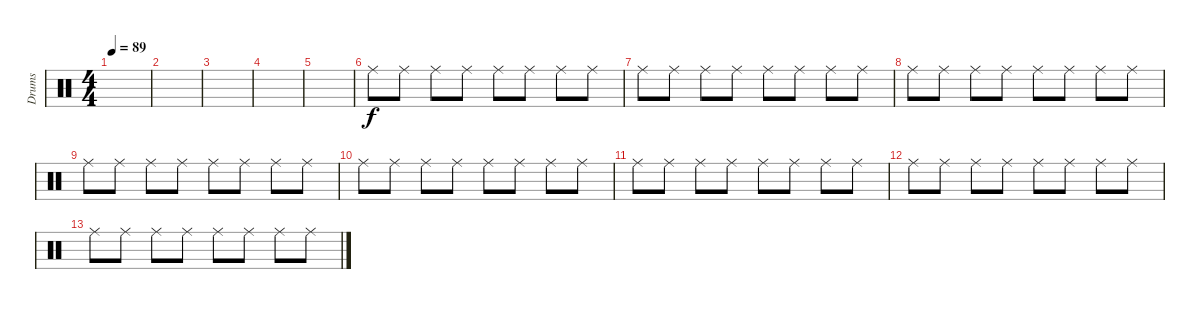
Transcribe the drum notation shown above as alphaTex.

\track ("Drums" "Drums") {instrument percussion}
\staff {score}
\articulation defaults
\ts (4 4)
\tempo 89
\clef neutral
\ks c
|
|
|
|
|
"Ride (middle)".8 "Ride (middle)".8 "Ride (middle)".8 "Ride (middle)".8 "Ride (middle)".8 "Ride (middle)".8 "Ride (middle)".8 "Ride (middle)".8 |
"Ride (middle)".8 "Ride (middle)".8 "Ride (middle)".8 "Ride (middle)".8 "Ride (middle)".8 "Ride (middle)".8 "Ride (middle)".8 "Ride (middle)".8 |
"Ride (middle)".8 "Ride (middle)".8 "Ride (middle)".8 "Ride (middle)".8 "Ride (middle)".8 "Ride (middle)".8 "Ride (middle)".8 "Ride (middle)".8 |
"Ride (middle)".8 "Ride (middle)".8 "Ride (middle)".8 "Ride (middle)".8 "Ride (middle)".8 "Ride (middle)".8 "Ride (middle)".8 "Ride (middle)".8 |
"Ride (middle)".8 "Ride (middle)".8 "Ride (middle)".8 "Ride (middle)".8 "Ride (middle)".8 "Ride (middle)".8 "Ride (middle)".8 "Ride (middle)".8 |
"Ride (middle)".8 "Ride (middle)".8 "Ride (middle)".8 "Ride (middle)".8 "Ride (middle)".8 "Ride (middle)".8 "Ride (middle)".8 "Ride (middle)".8 |
"Ride (middle)".8 "Ride (middle)".8 "Ride (middle)".8 "Ride (middle)".8 "Ride (middle)".8 "Ride (middle)".8 "Ride (middle)".8 "Ride (middle)".8 |
"Ride (middle)".8 "Ride (middle)".8 "Ride (middle)".8 "Ride (middle)".8 "Ride (middle)".8 "Ride (middle)".8 "Ride (middle)".8 "Ride (middle)".8
